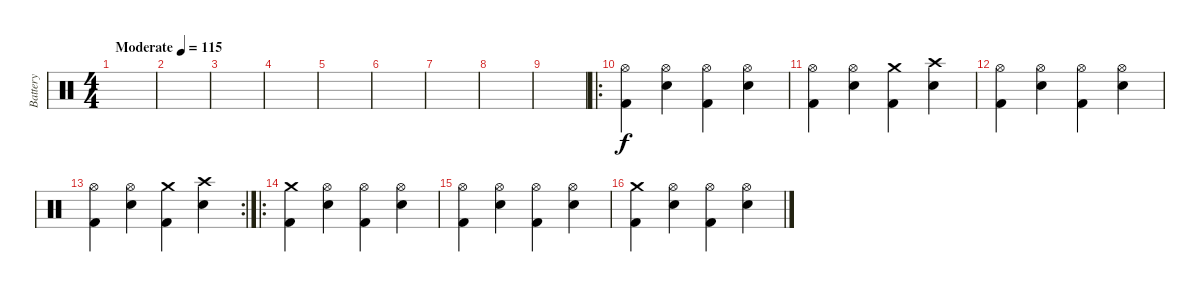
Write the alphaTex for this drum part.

\track ("Battery" "Battery") {instrument percussion}
\staff {score}
\articulation defaults
\ts (4 4)
\tempo (115 "Moderate")
\clef neutral
\ks c
|
|
|
|
|
|
|
|
|
\ro
("Hi-Hat (open)" "Kick (hit) 2").4 ("Hi-Hat (open)" "Snare (hit) 2").4 ("Hi-Hat (open)" "Kick (hit) 2").4 ("Hi-Hat (open)" "Snare (hit) 2").4 |
("Hi-Hat (open)" "Kick (hit) 2").4 ("Hi-Hat (open)" "Snare (hit) 2").4 ("Crash medium (hit)" "Kick (hit) 2").4 ("Crash high (hit)" "Snare (hit) 2").4 |
("Hi-Hat (open)" "Kick (hit) 2").4 ("Hi-Hat (open)" "Snare (hit) 2").4 ("Hi-Hat (open)" "Kick (hit) 2").4 ("Hi-Hat (open)" "Snare (hit) 2").4 |
\rc 2
("Hi-Hat (open)" "Kick (hit) 2").4 ("Hi-Hat (open)" "Snare (hit) 2").4 ("Crash medium (hit)" "Kick (hit) 2").4 ("Crash high (hit)" "Snare (hit) 2").4 |
\ro
("Crash medium (hit)" "Kick (hit) 2").4 ("Hi-Hat (open)" "Snare (hit) 2").4 ("Hi-Hat (open)" "Kick (hit) 2").4 ("Hi-Hat (open)" "Snare (hit) 2").4 |
("Hi-Hat (open)" "Kick (hit) 2").4 ("Hi-Hat (open)" "Snare (hit) 2").4 ("Hi-Hat (open)" "Kick (hit) 2").4 ("Hi-Hat (open)" "Snare (hit) 2").4 |
("Crash medium (hit)" "Kick (hit) 2").4 ("Hi-Hat (open)" "Snare (hit) 2").4 ("Hi-Hat (open)" "Kick (hit) 2").4 ("Hi-Hat (open)" "Snare (hit) 2").4
